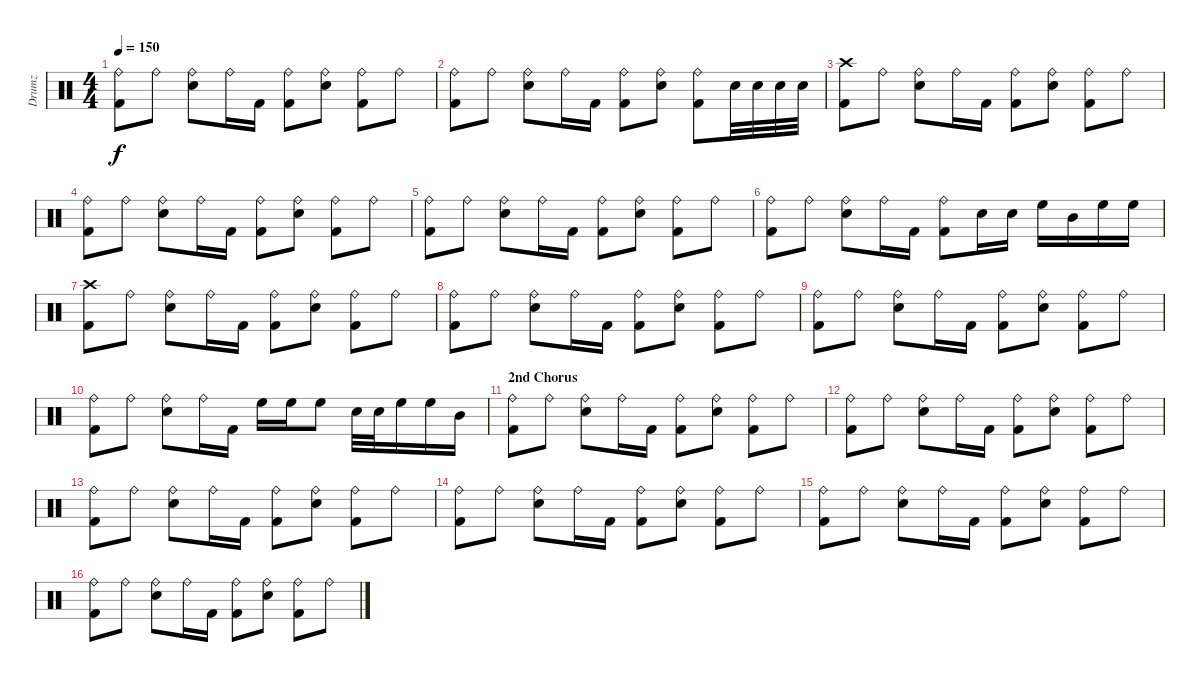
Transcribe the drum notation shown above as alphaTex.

\track ("Drumz" "Drumz") {instrument percussion}
\staff {score}
\articulation defaults
\ts (4 4)
\tempo 150
\clef neutral
\ks c
("Ride (bell)" "Kick (hit) 2").8{dy f} "Ride (bell)".8 ("Ride (bell)" "Snare (hit) 2").8 "Ride (bell)".16 "Kick (hit) 2".16 ("Ride (bell)" "Kick (hit) 2").8 ("Ride (bell)" "Snare (hit) 2").8 ("Ride (bell)" "Kick (hit) 2").8 "Ride (bell)".8 |
("Ride (bell)" "Kick (hit) 2").8 "Ride (bell)".8 ("Ride (bell)" "Snare (hit) 2").8 "Ride (bell)".16 "Kick (hit) 2".16 ("Ride (bell)" "Kick (hit) 2").8 ("Ride (bell)" "Snare (hit) 2").8 ("Ride (bell)" "Kick (hit) 2").8 "Snare (hit) 2".32 "Snare (hit) 2".32 "Snare (hit) 2".32 "Snare (hit) 2".32 |
("Crash high (hit)" "Kick (hit) 2").8 "Ride (bell)".8 ("Ride (bell)" "Snare (hit) 2").8 "Ride (bell)".16 "Kick (hit) 2".16 ("Ride (bell)" "Kick (hit) 2").8 ("Ride (bell)" "Snare (hit) 2").8 ("Ride (bell)" "Kick (hit) 2").8 "Ride (bell)".8 |
("Ride (bell)" "Kick (hit) 2").8 "Ride (bell)".8 ("Ride (bell)" "Snare (hit) 2").8 "Ride (bell)".16 "Kick (hit) 2".16 ("Ride (bell)" "Kick (hit) 2").8 ("Ride (bell)" "Snare (hit) 2").8 ("Ride (bell)" "Kick (hit) 2").8 "Ride (bell)".8 |
("Ride (bell)" "Kick (hit) 2").8 "Ride (bell)".8 ("Ride (bell)" "Snare (hit) 2").8 "Ride (bell)".16 "Kick (hit) 2".16 ("Ride (bell)" "Kick (hit) 2").8 ("Ride (bell)" "Snare (hit) 2").8 ("Ride (bell)" "Kick (hit) 2").8 "Ride (bell)".8 |
("Ride (bell)" "Kick (hit) 2").8 "Ride (bell)".8 ("Ride (bell)" "Snare (hit) 2").8 "Ride (bell)".16 "Kick (hit) 2".16 ("Ride (bell)" "Kick (hit) 2").8 "Snare (hit) 2".16 "Snare (hit) 2".16 "High Floor Tom (hit)".16 "Mid Tom (hit)".16 "High Floor Tom (hit)".16 "High Floor Tom (hit)".16 |
("Crash high (hit)" "Kick (hit) 2").8 "Ride (bell)".8 ("Ride (bell)" "Snare (hit) 2").8 "Ride (bell)".16 "Kick (hit) 2".16 ("Ride (bell)" "Kick (hit) 2").8 ("Ride (bell)" "Snare (hit) 2").8 ("Ride (bell)" "Kick (hit) 2").8 "Ride (bell)".8 |
("Ride (bell)" "Kick (hit) 2").8 "Ride (bell)".8 ("Ride (bell)" "Snare (hit) 2").8 "Ride (bell)".16 "Kick (hit) 2".16 ("Ride (bell)" "Kick (hit) 2").8 ("Ride (bell)" "Snare (hit) 2").8 ("Ride (bell)" "Kick (hit) 2").8 "Ride (bell)".8 |
("Ride (bell)" "Kick (hit) 2").8 "Ride (bell)".8 ("Ride (bell)" "Snare (hit) 2").8 "Ride (bell)".16 "Kick (hit) 2".16 ("Ride (bell)" "Kick (hit) 2").8 ("Ride (bell)" "Snare (hit) 2").8 ("Ride (bell)" "Kick (hit) 2").8 "Ride (bell)".8 |
("Ride (bell)" "Kick (hit) 2").8 "Ride (bell)".8 ("Ride (bell)" "Snare (hit) 2").8 "Ride (bell)".16 "Kick (hit) 2".16 "High Floor Tom (hit)".16 "High Floor Tom (hit)".16 "High Floor Tom (hit)".8 "Snare (hit) 2".32 "Snare (hit) 2".32 "High Floor Tom (hit)".16 "High Floor Tom (hit)".16 "Mid Tom (hit)".16 |
\section ("" "2nd Chorus")
("Ride (bell)" "Kick (hit) 2").8 "Ride (bell)".8 ("Ride (bell)" "Snare (hit) 2").8 "Ride (bell)".16 "Kick (hit) 2".16 ("Ride (bell)" "Kick (hit) 2").8 ("Ride (bell)" "Snare (hit) 2").8 ("Ride (bell)" "Kick (hit) 2").8 "Ride (bell)".8 |
("Ride (bell)" "Kick (hit) 2").8 "Ride (bell)".8 ("Ride (bell)" "Snare (hit) 2").8 "Ride (bell)".16 "Kick (hit) 2".16 ("Ride (bell)" "Kick (hit) 2").8 ("Ride (bell)" "Snare (hit) 2").8 ("Ride (bell)" "Kick (hit) 2").8 "Ride (bell)".8 |
("Ride (bell)" "Kick (hit) 2").8 "Ride (bell)".8 ("Ride (bell)" "Snare (hit) 2").8 "Ride (bell)".16 "Kick (hit) 2".16 ("Ride (bell)" "Kick (hit) 2").8 ("Ride (bell)" "Snare (hit) 2").8 ("Ride (bell)" "Kick (hit) 2").8 "Ride (bell)".8 |
("Ride (bell)" "Kick (hit) 2").8 "Ride (bell)".8 ("Ride (bell)" "Snare (hit) 2").8 "Ride (bell)".16 "Kick (hit) 2".16 ("Ride (bell)" "Kick (hit) 2").8 ("Ride (bell)" "Snare (hit) 2").8 ("Ride (bell)" "Kick (hit) 2").8 "Ride (bell)".8 |
("Ride (bell)" "Kick (hit) 2").8 "Ride (bell)".8 ("Ride (bell)" "Snare (hit) 2").8 "Ride (bell)".16 "Kick (hit) 2".16 ("Ride (bell)" "Kick (hit) 2").8 ("Ride (bell)" "Snare (hit) 2").8 ("Ride (bell)" "Kick (hit) 2").8 "Ride (bell)".8 |
("Ride (bell)" "Kick (hit) 2").8 "Ride (bell)".8 ("Ride (bell)" "Snare (hit) 2").8 "Ride (bell)".16 "Kick (hit) 2".16 ("Ride (bell)" "Kick (hit) 2").8 ("Ride (bell)" "Snare (hit) 2").8 ("Ride (bell)" "Kick (hit) 2").8 "Ride (bell)".8
